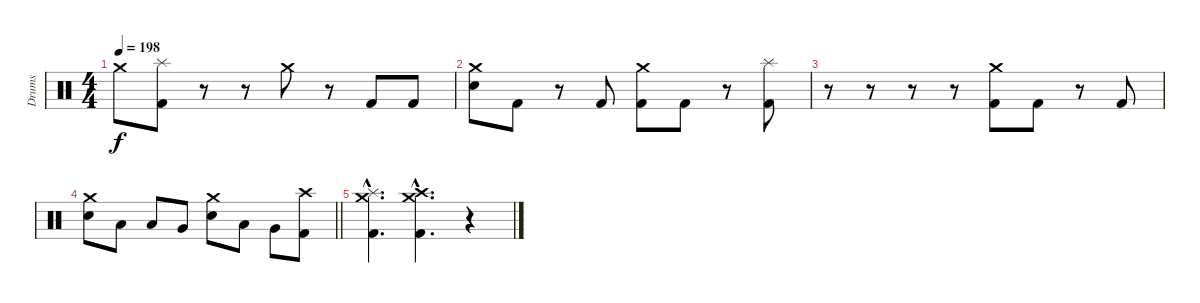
\track ("Drums" "Drums") {instrument percussion}
\staff {score}
\articulation defaults
\ts (4 4)
\tempo 198
\clef neutral
\ks c "Crash medium (hit)".8{dy f}
("Splash (hit)" "Kick (hit) 2").8 r.8 r.8 "Crash medium (hit)".8 r.8 "Kick (hit) 2".8 "Kick (hit) 2".8 |
("Crash medium (hit)" "Electric Snare (hit)").8 "Kick (hit) 2".8 r.8 "Kick (hit) 2".8 ("Crash medium (hit)" "Kick (hit) 2").8 "Kick (hit) 2".8 r.8 ("Splash (hit)" "Kick (hit) 2").8 |
r.8 r.8 r.8 r.8 ("Crash medium (hit)" "Kick (hit) 2").8 "Kick (hit) 2".8 r.8 "Kick (hit) 2".8 |
\barLineRight lightlight
("Crash medium (hit)" "Electric Snare (hit)").8 "Low Tom (hit)".8 "Low Floor Tom (hit)".8 "Very Low Tom (hit)".8 ("Crash medium (hit)" "Electric Snare (hit)").8 "Low Floor Tom (hit)".8 "Very Low Tom (hit)".8 ("Crash high (hit)" "Kick (hit) 2").8 |
\section ("" "")
("Crash medium (hit)"{hac} "Splash (hit)"{hac} "Kick (hit) 2"{hac}).4{d} ("Crash medium (hit)"{hac} "Crash high (hit)"{hac} "Kick (hit) 2"{hac}).4{d} r.4
